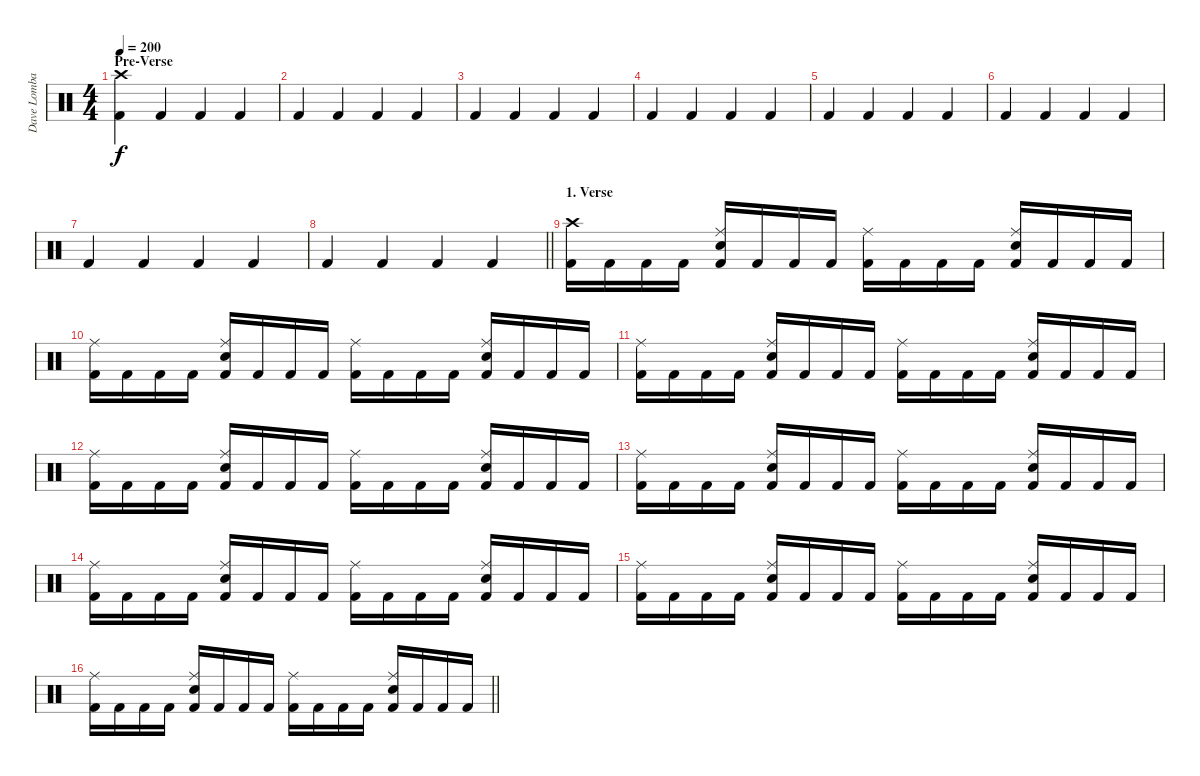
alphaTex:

\track ("Dave Lombardo (Drums)" "Dave Lomba") {instrument percussion}
\staff {score}
\articulation defaults
\ts (4 4)
\section ("" "Pre-Verse")
\tempo 200
\clef neutral
\ks c
("Crash high (hit)" "Kick (hit) 2").4{dy f} "Kick (hit) 2".4 "Kick (hit) 2".4 "Kick (hit) 2".4 |
"Kick (hit) 2".4 "Kick (hit) 2".4 "Kick (hit) 2".4 "Kick (hit) 2".4 |
"Kick (hit) 2".4 "Kick (hit) 2".4 "Kick (hit) 2".4 "Kick (hit) 2".4 |
"Kick (hit) 2".4 "Kick (hit) 2".4 "Kick (hit) 2".4 "Kick (hit) 2".4 |
"Kick (hit) 2".4 "Kick (hit) 2".4 "Kick (hit) 2".4 "Kick (hit) 2".4 |
"Kick (hit) 2".4 "Kick (hit) 2".4 "Kick (hit) 2".4 "Kick (hit) 2".4 |
"Kick (hit) 2".4 "Kick (hit) 2".4 "Kick (hit) 2".4 "Kick (hit) 2".4 |
\barLineRight lightlight "Kick (hit) 2".4 "Kick (hit) 2".4 "Kick (hit) 2".4 "Kick (hit) 2".4
|
\section ("" "1. Verse")
("Crash high (hit)" "Kick (hit) 2").16 "Kick (hit) 2".16 "Kick (hit) 2".16 "Kick (hit) 2".16 ("Ride (middle)" "Snare (hit) 2" "Kick (hit) 2").16 "Kick (hit) 2".16 "Kick (hit) 2".16 "Kick (hit) 2".16 ("Ride (middle)" "Kick (hit) 2").16 "Kick (hit) 2".16 "Kick (hit) 2".16 "Kick (hit) 2".16 ("Ride (middle)" "Snare (hit) 2" "Kick (hit) 2").16 "Kick (hit) 2".16 "Kick (hit) 2".16 "Kick (hit) 2".16 |
("Ride (middle)" "Kick (hit) 2").16 "Kick (hit) 2".16 "Kick (hit) 2".16 "Kick (hit) 2".16 ("Ride (middle)" "Snare (hit) 2" "Kick (hit) 2").16 "Kick (hit) 2".16 "Kick (hit) 2".16 "Kick (hit) 2".16 ("Ride (middle)" "Kick (hit) 2").16 "Kick (hit) 2".16 "Kick (hit) 2".16 "Kick (hit) 2".16 ("Ride (middle)" "Snare (hit) 2" "Kick (hit) 2").16 "Kick (hit) 2".16 "Kick (hit) 2".16 "Kick (hit) 2".16 |
("Ride (middle)" "Kick (hit) 2").16 "Kick (hit) 2".16 "Kick (hit) 2".16 "Kick (hit) 2".16 ("Ride (middle)" "Snare (hit) 2" "Kick (hit) 2").16 "Kick (hit) 2".16 "Kick (hit) 2".16 "Kick (hit) 2".16 ("Ride (middle)" "Kick (hit) 2").16 "Kick (hit) 2".16 "Kick (hit) 2".16 "Kick (hit) 2".16 ("Ride (middle)" "Snare (hit) 2" "Kick (hit) 2").16 "Kick (hit) 2".16 "Kick (hit) 2".16 "Kick (hit) 2".16 |
("Ride (middle)" "Kick (hit) 2").16 "Kick (hit) 2".16 "Kick (hit) 2".16 "Kick (hit) 2".16 ("Ride (middle)" "Snare (hit) 2" "Kick (hit) 2").16 "Kick (hit) 2".16 "Kick (hit) 2".16 "Kick (hit) 2".16 ("Ride (middle)" "Kick (hit) 2").16 "Kick (hit) 2".16 "Kick (hit) 2".16 "Kick (hit) 2".16 ("Ride (middle)" "Snare (hit) 2" "Kick (hit) 2").16 "Kick (hit) 2".16 "Kick (hit) 2".16 "Kick (hit) 2".16 |
("Ride (middle)" "Kick (hit) 2").16 "Kick (hit) 2".16 "Kick (hit) 2".16 "Kick (hit) 2".16 ("Ride (middle)" "Snare (hit) 2" "Kick (hit) 2").16 "Kick (hit) 2".16 "Kick (hit) 2".16 "Kick (hit) 2".16 ("Ride (middle)" "Kick (hit) 2").16 "Kick (hit) 2".16 "Kick (hit) 2".16 "Kick (hit) 2".16 ("Ride (middle)" "Snare (hit) 2" "Kick (hit) 2").16 "Kick (hit) 2".16 "Kick (hit) 2".16 "Kick (hit) 2".16 |
("Ride (middle)" "Kick (hit) 2").16 "Kick (hit) 2".16 "Kick (hit) 2".16 "Kick (hit) 2".16 ("Ride (middle)" "Snare (hit) 2" "Kick (hit) 2").16 "Kick (hit) 2".16 "Kick (hit) 2".16 "Kick (hit) 2".16 ("Ride (middle)" "Kick (hit) 2").16 "Kick (hit) 2".16 "Kick (hit) 2".16 "Kick (hit) 2".16 ("Ride (middle)" "Snare (hit) 2" "Kick (hit) 2").16 "Kick (hit) 2".16 "Kick (hit) 2".16 "Kick (hit) 2".16 |
("Ride (middle)" "Kick (hit) 2").16 "Kick (hit) 2".16 "Kick (hit) 2".16 "Kick (hit) 2".16 ("Ride (middle)" "Snare (hit) 2" "Kick (hit) 2").16 "Kick (hit) 2".16 "Kick (hit) 2".16 "Kick (hit) 2".16 ("Ride (middle)" "Kick (hit) 2").16 "Kick (hit) 2".16 "Kick (hit) 2".16 "Kick (hit) 2".16 ("Ride (middle)" "Snare (hit) 2" "Kick (hit) 2").16 "Kick (hit) 2".16 "Kick (hit) 2".16 "Kick (hit) 2".16 |
\barLineRight lightlight
("Ride (middle)" "Kick (hit) 2").16 "Kick (hit) 2".16 "Kick (hit) 2".16 "Kick (hit) 2".16 ("Ride (middle)" "Snare (hit) 2" "Kick (hit) 2").16 "Kick (hit) 2".16 "Kick (hit) 2".16 "Kick (hit) 2".16 ("Ride (middle)" "Kick (hit) 2").16 "Kick (hit) 2".16 "Kick (hit) 2".16 "Kick (hit) 2".16 ("Ride (middle)" "Snare (hit) 2" "Kick (hit) 2").16 "Kick (hit) 2".16 "Kick (hit) 2".16 "Kick (hit) 2".16
